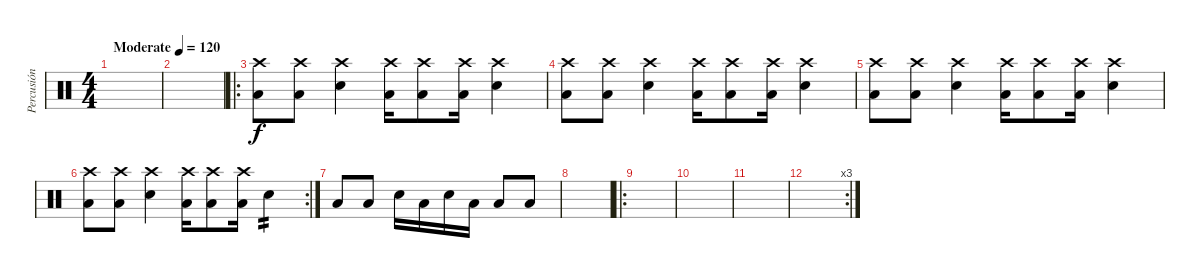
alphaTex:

\track ("Percusión" "Percusión") {instrument percussion}
\staff {score}
\articulation defaults
\ts (4 4)
\tempo (120 "Moderate")
\clef neutral
\ks c
|
|
\ro
("Crash high (hit)" "Low Floor Tom (hit)").8 ("Crash high (hit)" "Low Floor Tom (hit)").8 ("Crash high (hit)" "Electric Snare (hit)").4 ("Crash high (hit)" "Low Floor Tom (hit)").16 ("Crash high (hit)" "Low Floor Tom (hit)").8 ("Crash high (hit)" "Low Floor Tom (hit)").16 ("Crash high (hit)" "Electric Snare (hit)").4 |
("Crash high (hit)" "Low Floor Tom (hit)").8 ("Crash high (hit)" "Low Floor Tom (hit)").8 ("Crash high (hit)" "Electric Snare (hit)").4 ("Crash high (hit)" "Low Floor Tom (hit)").16 ("Crash high (hit)" "Low Floor Tom (hit)").8 ("Crash high (hit)" "Low Floor Tom (hit)").16 ("Crash high (hit)" "Electric Snare (hit)").4 |
("Crash high (hit)" "Low Floor Tom (hit)").8 ("Crash high (hit)" "Low Floor Tom (hit)").8 ("Crash high (hit)" "Electric Snare (hit)").4 ("Crash high (hit)" "Low Floor Tom (hit)").16 ("Crash high (hit)" "Low Floor Tom (hit)").8 ("Crash high (hit)" "Low Floor Tom (hit)").16 ("Crash high (hit)" "Electric Snare (hit)").4 |
\rc 2
("Crash high (hit)" "Low Floor Tom (hit)").8 ("Crash high (hit)" "Low Floor Tom (hit)").8 ("Crash high (hit)" "Electric Snare (hit)").4 ("Crash high (hit)" "Low Floor Tom (hit)").16 ("Crash high (hit)" "Low Floor Tom (hit)").8 ("Crash high (hit)" "Low Floor Tom (hit)").16 "Electric Snare (hit)".4{tp 2} |
"Low Floor Tom (hit)".8 "Low Floor Tom (hit)".8 "Electric Snare (hit)".16 "Low Floor Tom (hit)".16 "Electric Snare (hit)".16 "Low Floor Tom (hit)".16 "Low Floor Tom (hit)".8 "Low Floor Tom (hit)".8 |
|
\ro
|
|
|
\rc 3
